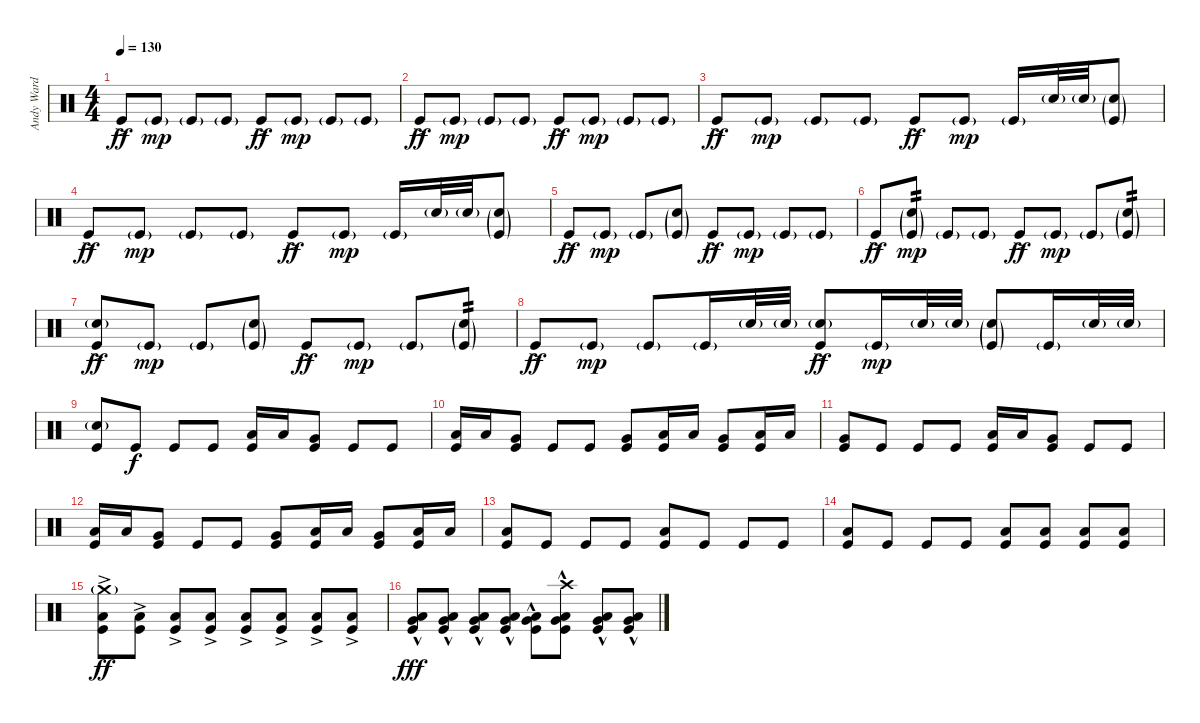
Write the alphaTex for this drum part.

\track ("Andy Ward (Drums)" "Andy Ward ") {instrument percussion}
\staff {score}
\articulation defaults
\ts (4 4)
\tempo 130
\clef neutral
\ks c "Kick (hit)"{ac}.8{dy ff} "Kick (hit)"{g}.8{dy mp} "Kick (hit)"{g}.8 "Kick (hit)"{g}.8 "Kick (hit)"{ac}.8{dy ff} "Kick (hit)"{g}.8{dy mp} "Kick (hit)"{g}.8 "Kick (hit)"{g}.8
|
"Kick (hit)"{ac}.8{dy ff} "Kick (hit)"{g}.8{dy mp} "Kick (hit)"{g}.8 "Kick (hit)"{g}.8 "Kick (hit)"{ac}.8{dy ff} "Kick (hit)"{g}.8{dy mp} "Kick (hit)"{g}.8 "Kick (hit)"{g}.8 |
"Kick (hit)"{ac}.8{dy ff} "Kick (hit)"{g}.8{dy mp} "Kick (hit)"{g}.8 "Kick (hit)"{g}.8 "Kick (hit)"{ac}.8{dy ff} "Kick (hit)"{g}.8{dy mp} "Kick (hit)"{g}.16 "Snare (hit) 2"{g}.32 "Snare (hit) 2"{g}.32 ("Snare (hit) 2"{g} "Kick (hit)"{g}).8 |
"Kick (hit)"{ac}.8{dy ff} "Kick (hit)"{g}.8{dy mp} "Kick (hit)"{g}.8 "Kick (hit)"{g}.8 "Kick (hit)"{ac}.8{dy ff} "Kick (hit)"{g}.8{dy mp} "Kick (hit)"{g}.16 "Snare (hit) 2"{g}.32 "Snare (hit) 2"{g}.32 ("Snare (hit) 2"{g} "Kick (hit)"{g}).8 |
"Kick (hit)"{ac}.8{dy ff} "Kick (hit)"{g}.8{dy mp} "Kick (hit)"{g}.8 ("Snare (hit) 2"{g} "Kick (hit)"{g}).8 "Kick (hit)"{ac}.8{dy ff} "Kick (hit)"{g}.8{dy mp} "Kick (hit)"{g}.8 "Kick (hit)"{g}.8 |
"Kick (hit)"{ac}.8{dy ff} ("Snare (hit) 2"{g} "Kick (hit)"{g}).8{tp 2 dy mp} "Kick (hit)"{g}.8 "Kick (hit)"{g}.8 "Kick (hit)"{ac}.8{dy ff} "Kick (hit)"{g}.8{dy mp} "Kick (hit)"{g}.8 ("Snare (hit) 2"{g} "Kick (hit)"{g}).8{tp 2} |
("Snare (hit) 2"{g} "Kick (hit)"{ac}).8{dy ff} "Kick (hit)"{g}.8{dy mp} "Kick (hit)"{g}.8 ("Snare (hit) 2"{g} "Kick (hit)"{g}).8 "Kick (hit)"{ac}.8{dy ff} "Kick (hit)"{g}.8{dy mp} "Kick (hit)"{g}.8 ("Snare (hit) 2"{g} "Kick (hit)"{g}).8{tp 2} |
"Kick (hit)"{ac}.8{dy ff} "Kick (hit)"{g}.8{dy mp} "Kick (hit)"{g}.8 "Kick (hit)"{g}.16 "Snare (hit) 2"{g}.32 "Snare (hit) 2"{g}.32 ("Snare (hit) 2"{g} "Kick (hit)"{ac}).8{dy ff} "Kick (hit)"{g}.16{dy mp} "Snare (hit) 2"{g}.32 "Snare (hit) 2"{g}.32 ("Snare (hit) 2"{g} "Kick (hit)"{g}).8 "Kick (hit)"{g}.16 "Snare (hit) 2"{g}.32 "Snare (hit) 2"{g}.32 |
("Snare (hit) 2"{g} "Kick (hit)").8 "Kick (hit)".8{dy f} "Kick (hit)".8 "Kick (hit)".8 ("Low Tom (hit)" "Kick (hit)").16 "Low Tom (hit)".16 ("Very Low Tom (hit)" "Kick (hit)").8 "Kick (hit)".8 "Kick (hit)".8 |
("Low Tom (hit)" "Kick (hit)").16 "Low Tom (hit)".16 ("Very Low Tom (hit)" "Kick (hit)").8 "Kick (hit)".8 "Kick (hit)".8 ("Very Low Tom (hit)" "Kick (hit)").8 ("Low Tom (hit)" "Kick (hit)").16 "Low Tom (hit)".16 ("Very Low Tom (hit)" "Kick (hit)").8 ("Low Tom (hit)" "Kick (hit)").16 "Low Tom (hit)".16 |
("Very Low Tom (hit)" "Kick (hit)").8 "Kick (hit)".8 "Kick (hit)".8 "Kick (hit)".8 ("Low Tom (hit)" "Kick (hit)").16 "Low Tom (hit)".16 ("Very Low Tom (hit)" "Kick (hit)").8 "Kick (hit)".8 "Kick (hit)".8 |
("Low Tom (hit)" "Kick (hit)").16 "Low Tom (hit)".16 ("Very Low Tom (hit)" "Kick (hit)").8 "Kick (hit)".8 "Kick (hit)".8 ("Very Low Tom (hit)" "Kick (hit)").8 ("Low Tom (hit)" "Kick (hit)").16 "Low Tom (hit)".16 ("Very Low Tom (hit)" "Kick (hit)").8 ("Low Tom (hit)" "Kick (hit)").16 "Low Tom (hit)".16 |
("Low Floor Tom (hit)" "Kick (hit)").8 "Kick (hit)".8 "Kick (hit)".8 "Kick (hit)".8 ("Low Floor Tom (hit)" "Kick (hit)").8 "Kick (hit)".8 "Kick (hit)".8 "Kick (hit)".8 |
("Low Floor Tom (hit)" "Kick (hit)").8 "Kick (hit)".8 "Kick (hit)".8 "Kick (hit)".8 ("Low Floor Tom (hit)" "Kick (hit)").8 ("Low Floor Tom (hit)" "Kick (hit)").8 ("Low Floor Tom (hit)" "Kick (hit)").8 ("Low Floor Tom (hit)" "Kick (hit)").8 |
("Crash medium (hit)"{g} "Low Floor Tom (hit)" "Kick (hit)"{ac}).8{dy ff} ("Low Floor Tom (hit)" "Kick (hit)"{ac}).8 ("Low Floor Tom (hit)" "Kick (hit)"{ac}).8 ("Low Floor Tom (hit)" "Kick (hit)"{ac}).8 ("Low Floor Tom (hit)" "Kick (hit)"{ac}).8 ("Low Floor Tom (hit)" "Kick (hit)"{ac}).8 ("Low Floor Tom (hit)" "Kick (hit)"{ac}).8 ("Low Floor Tom (hit)" "Kick (hit)"{ac}).8 |
("Very Low Tom (hit)" "Low Floor Tom (hit)" "Kick (hit)"{hac}).8{dy fff} ("Very Low Tom (hit)" "Low Floor Tom (hit)" "Kick (hit)"{hac}).8 ("Very Low Tom (hit)" "Low Floor Tom (hit)" "Kick (hit)"{hac}).8 ("Very Low Tom (hit)" "Low Floor Tom (hit)" "Kick (hit)"{hac}).8 ("Very Low Tom (hit)" "Low Floor Tom (hit)" "Kick (hit)"{hac}).8 ("Crash high (hit)" "Very Low Tom (hit)" "Low Floor Tom (hit)" "Kick (hit)"{hac}).8 ("Very Low Tom (hit)" "Low Floor Tom (hit)" "Kick (hit)"{hac}).8 ("Very Low Tom (hit)" "Low Floor Tom (hit)" "Kick (hit)"{hac}).8
